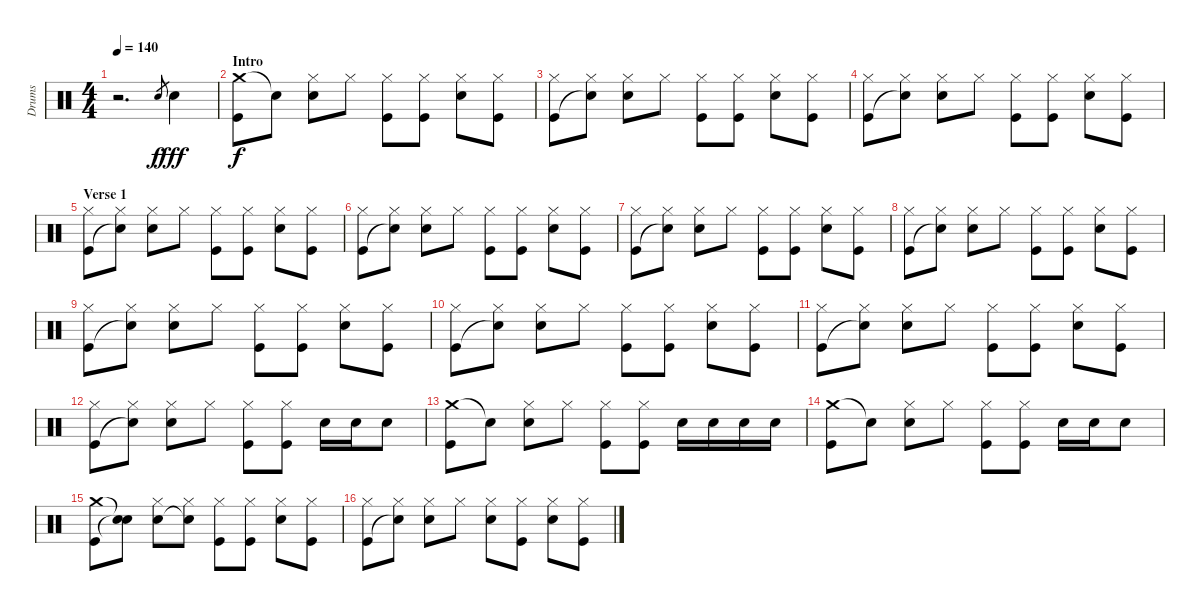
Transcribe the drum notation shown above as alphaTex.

\track ("Drums" "Drums") {instrument percussion}
\staff {score}
\articulation defaults
\ts (4 4)
\tempo 140
\clef neutral
\ks c
r.2{d dy f} "Snare (hit) 2".8{gr} "Snare (hit) 2".4{dy fff} |
\section ("" "Intro")
("Crash medium (hit)" "Kick (hit)").8{dy f} "Snare (hit)"{t}.8 ("Hi-Hat (closed)" "Snare (hit) 2").8 "Hi-Hat (closed)".8 ("Hi-Hat (closed)" "Kick (hit)").8 ("Hi-Hat (closed)" "Kick (hit)").8 ("Hi-Hat (closed)" "Snare (hit) 2").8 ("Hi-Hat (closed)" "Kick (hit)").8 |
("Hi-Hat (closed)" "Kick (hit)").8 ("Hi-Hat (closed)" "Snare (hit)"{t}).8 ("Hi-Hat (closed)" "Snare (hit) 2").8 "Hi-Hat (closed)".8 ("Hi-Hat (closed)" "Kick (hit)").8 ("Hi-Hat (closed)" "Kick (hit)").8 ("Hi-Hat (closed)" "Snare (hit) 2").8 ("Hi-Hat (closed)" "Kick (hit)").8 |
("Hi-Hat (closed)" "Kick (hit)").8 ("Hi-Hat (closed)" "Snare (hit)"{t}).8 ("Hi-Hat (closed)" "Snare (hit) 2").8 "Hi-Hat (closed)".8 ("Hi-Hat (closed)" "Kick (hit)").8 ("Hi-Hat (closed)" "Kick (hit)").8 ("Hi-Hat (closed)" "Snare (hit) 2").8 ("Hi-Hat (closed)" "Kick (hit)").8 |
\section ("" "Verse 1")
("Hi-Hat (closed)" "Kick (hit)").8 ("Hi-Hat (closed)" "Snare (hit)"{t}).8 ("Hi-Hat (closed)" "Snare (hit) 2").8 "Hi-Hat (closed)".8 ("Hi-Hat (closed)" "Kick (hit)").8 ("Hi-Hat (closed)" "Kick (hit)").8 ("Hi-Hat (closed)" "Snare (hit) 2").8 ("Hi-Hat (closed)" "Kick (hit)").8 |
("Hi-Hat (closed)" "Kick (hit)").8 ("Hi-Hat (closed)" "Snare (hit)"{t}).8 ("Hi-Hat (closed)" "Snare (hit) 2").8 "Hi-Hat (closed)".8 ("Hi-Hat (closed)" "Kick (hit)").8 ("Hi-Hat (closed)" "Kick (hit)").8 ("Hi-Hat (closed)" "Snare (hit) 2").8 ("Hi-Hat (closed)" "Kick (hit)").8 |
("Hi-Hat (closed)" "Kick (hit)").8 ("Hi-Hat (closed)" "Snare (hit)"{t}).8 ("Hi-Hat (closed)" "Snare (hit) 2").8 "Hi-Hat (closed)".8 ("Hi-Hat (closed)" "Kick (hit)").8 ("Hi-Hat (closed)" "Kick (hit)").8 ("Hi-Hat (closed)" "Snare (hit) 2").8 ("Hi-Hat (closed)" "Kick (hit)").8 |
("Hi-Hat (closed)" "Kick (hit)").8 ("Hi-Hat (closed)" "Snare (hit)"{t}).8 ("Hi-Hat (closed)" "Snare (hit) 2").8 "Hi-Hat (closed)".8 ("Hi-Hat (closed)" "Kick (hit)").8 ("Hi-Hat (closed)" "Kick (hit)").8 ("Hi-Hat (closed)" "Snare (hit) 2").8 ("Hi-Hat (closed)" "Kick (hit)").8 |
("Hi-Hat (closed)" "Kick (hit)").8 ("Hi-Hat (closed)" "Snare (hit)"{t}).8 ("Hi-Hat (closed)" "Snare (hit) 2").8 "Hi-Hat (closed)".8 ("Hi-Hat (closed)" "Kick (hit)").8 ("Hi-Hat (closed)" "Kick (hit)").8 ("Hi-Hat (closed)" "Snare (hit) 2").8 ("Hi-Hat (closed)" "Kick (hit)").8 |
("Hi-Hat (closed)" "Kick (hit)").8 ("Hi-Hat (closed)" "Snare (hit)"{t}).8 ("Hi-Hat (closed)" "Snare (hit) 2").8 "Hi-Hat (closed)".8 ("Hi-Hat (closed)" "Kick (hit)").8 ("Hi-Hat (closed)" "Kick (hit)").8 ("Hi-Hat (closed)" "Snare (hit) 2").8 ("Hi-Hat (closed)" "Kick (hit)").8 |
("Hi-Hat (closed)" "Kick (hit)").8 ("Hi-Hat (closed)" "Snare (hit)"{t}).8 ("Hi-Hat (closed)" "Snare (hit) 2").8 "Hi-Hat (closed)".8 ("Hi-Hat (closed)" "Kick (hit)").8 ("Hi-Hat (closed)" "Kick (hit)").8 ("Hi-Hat (closed)" "Snare (hit) 2").8 ("Hi-Hat (closed)" "Kick (hit)").8 |
("Hi-Hat (closed)" "Kick (hit)").8 ("Hi-Hat (closed)" "Snare (hit)"{t}).8 ("Hi-Hat (closed)" "Snare (hit) 2").8 "Hi-Hat (closed)".8 ("Hi-Hat (closed)" "Kick (hit)").8 ("Hi-Hat (closed)" "Kick (hit)").8 "Snare (hit) 2".16 "Snare (hit) 2".16 "Snare (hit) 2".8 |
("Crash medium (hit)" "Kick (hit)").8 "Snare (hit)"{t}.8 ("Hi-Hat (closed)" "Snare (hit) 2").8 "Hi-Hat (closed)".8 ("Hi-Hat (closed)" "Kick (hit)").8 ("Hi-Hat (closed)" "Kick (hit)").8 "Snare (hit) 2".16 "Snare (hit) 2".16 "Snare (hit) 2".16 "Snare (hit) 2".16 |
("Crash medium (hit)" "Kick (hit)").8 "Snare (hit)"{t}.8 ("Hi-Hat (closed)" "Snare (hit) 2").8 "Hi-Hat (closed)".8 ("Hi-Hat (closed)" "Kick (hit)").8 ("Hi-Hat (closed)" "Kick (hit)").8 "Snare (hit) 2".16 "Snare (hit) 2".16 "Snare (hit) 2".8 |
("Crash medium (hit)" "Kick (hit)").8 ("Snare (hit)"{t} "Snare (hit)"{t}).8 ("Hi-Hat (closed)" "Snare (hit) 2").8 ("Hi-Hat (closed)" "Snare (hit)"{t}).8 ("Hi-Hat (closed)" "Kick (hit)").8 ("Hi-Hat (closed)" "Kick (hit)").8 ("Hi-Hat (closed)" "Snare (hit) 2").8 ("Hi-Hat (closed)" "Kick (hit)").8 |
("Hi-Hat (closed)" "Kick (hit)").8 ("Hi-Hat (closed)" "Snare (hit)"{t}).8 ("Hi-Hat (closed)" "Snare (hit) 2").8 "Hi-Hat (closed)".8 ("Hi-Hat (closed)" "Snare (hit) 2").8 ("Hi-Hat (closed)" "Kick (hit)").8 ("Hi-Hat (closed)" "Snare (hit) 2").8 ("Hi-Hat (closed)" "Kick (hit)").8
